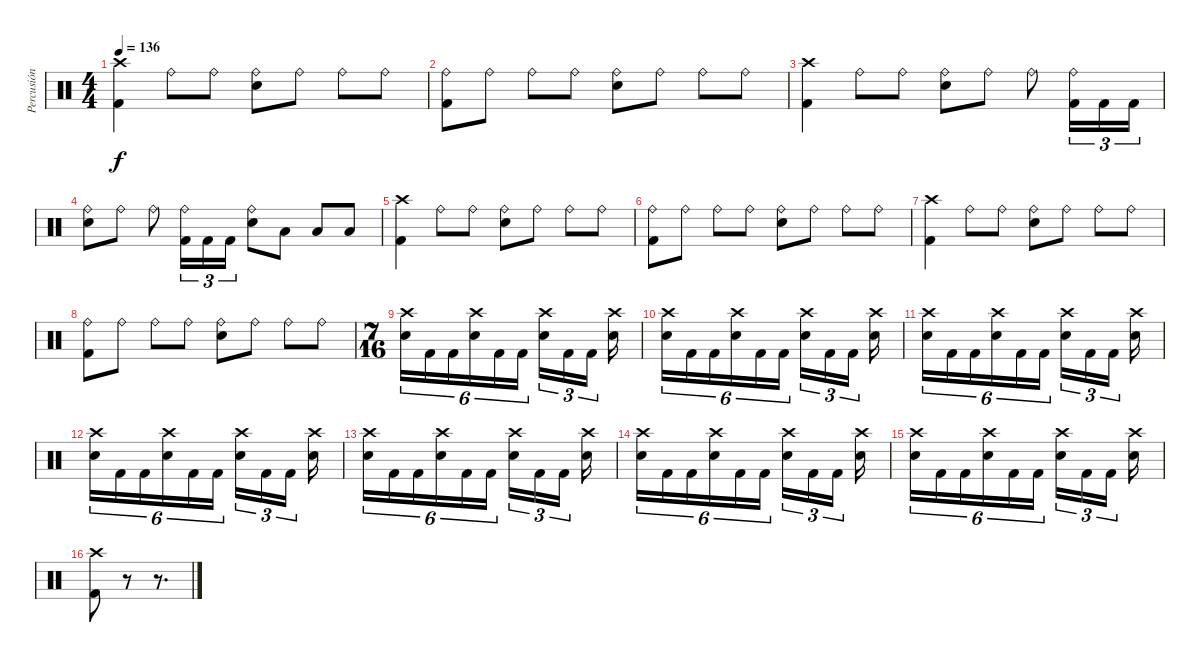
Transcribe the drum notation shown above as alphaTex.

\track ("Percusión" "Percusión") {instrument percussion}
\staff {score}
\articulation defaults
\ts (4 4)
\tempo 136
\clef neutral
\ks c
("Crash high (hit)" "Kick (hit) 2").4{dy f} "Ride (bell)".8 "Ride (bell)".8 ("Ride (bell)" "Electric Snare (hit)").8 "Ride (bell)".8 "Ride (bell)".8 "Ride (bell)".8 |
("Ride (bell)" "Kick (hit) 2").8 "Ride (bell)".8 "Ride (bell)".8 "Ride (bell)".8 ("Ride (bell)" "Electric Snare (hit)").8 "Ride (bell)".8 "Ride (bell)".8 "Ride (bell)".8 |
("Crash high (hit)" "Kick (hit) 2").4 "Ride (bell)".8 "Ride (bell)".8 ("Ride (bell)" "Electric Snare (hit)").8 "Ride (bell)".8 "Ride (bell)".8 ("Ride (bell)" "Kick (hit) 2").16{tu (3 2)} "Kick (hit) 2".16{tu (3 2)} "Kick (hit) 2".16{tu (3 2)} |
("Ride (bell)" "Electric Snare (hit)").8 "Ride (bell)".8 "Ride (bell)".8 ("Ride (bell)" "Kick (hit) 2").16{tu (3 2)} "Kick (hit) 2".16{tu (3 2)} "Kick (hit) 2".16{tu (3 2)} ("Ride (bell)" "Electric Snare (hit)").8 "Low Tom (hit)".8 "Low Tom (hit)".8 "Low Tom (hit)".8 |
("Crash high (hit)" "Kick (hit) 2").4 "Ride (bell)".8 "Ride (bell)".8 ("Ride (bell)" "Electric Snare (hit)").8 "Ride (bell)".8 "Ride (bell)".8 "Ride (bell)".8 |
("Ride (bell)" "Kick (hit) 2").8 "Ride (bell)".8 "Ride (bell)".8 "Ride (bell)".8 ("Ride (bell)" "Electric Snare (hit)").8 "Ride (bell)".8 "Ride (bell)".8 "Ride (bell)".8 |
("Crash high (hit)" "Kick (hit) 2").4 "Ride (bell)".8 "Ride (bell)".8 ("Ride (bell)" "Electric Snare (hit)").8 "Ride (bell)".8 "Ride (bell)".8 "Ride (bell)".8 |
("Ride (bell)" "Kick (hit) 2").8 "Ride (bell)".8 "Ride (bell)".8 "Ride (bell)".8 ("Ride (bell)" "Electric Snare (hit)").8 "Ride (bell)".8 "Ride (bell)".8 "Ride (bell)".8 |
\ts (7 16)
("Crash high (hit)" "Electric Snare (hit)").16{tu (6 4)} "Kick (hit) 2".16{tu (6 4)} "Kick (hit) 2".16{tu (6 4)} ("Crash high (hit)" "Electric Snare (hit)").16{tu (6 4)} "Kick (hit) 2".16{tu (6 4)} "Kick (hit) 2".16{tu (6 4)} ("Crash high (hit)" "Electric Snare (hit)").16{tu (3 2)} "Kick (hit) 2".16{tu (3 2)} "Kick (hit) 2".16{tu (3 2)} ("Crash high (hit)" "Electric Snare (hit)").16 |
("Crash high (hit)" "Electric Snare (hit)").16{tu (6 4)} "Kick (hit) 2".16{tu (6 4)} "Kick (hit) 2".16{tu (6 4)} ("Crash high (hit)" "Electric Snare (hit)").16{tu (6 4)} "Kick (hit) 2".16{tu (6 4)} "Kick (hit) 2".16{tu (6 4)} ("Crash high (hit)" "Electric Snare (hit)").16{tu (3 2)} "Kick (hit) 2".16{tu (3 2)} "Kick (hit) 2".16{tu (3 2)} ("Crash high (hit)" "Electric Snare (hit)").16 |
("Crash high (hit)" "Electric Snare (hit)").16{tu (6 4)} "Kick (hit) 2".16{tu (6 4)} "Kick (hit) 2".16{tu (6 4)} ("Crash high (hit)" "Electric Snare (hit)").16{tu (6 4)} "Kick (hit) 2".16{tu (6 4)} "Kick (hit) 2".16{tu (6 4)} ("Crash high (hit)" "Electric Snare (hit)").16{tu (3 2)} "Kick (hit) 2".16{tu (3 2)} "Kick (hit) 2".16{tu (3 2)} ("Crash high (hit)" "Electric Snare (hit)").16 |
("Crash high (hit)" "Electric Snare (hit)").16{tu (6 4)} "Kick (hit) 2".16{tu (6 4)} "Kick (hit) 2".16{tu (6 4)} ("Crash high (hit)" "Electric Snare (hit)").16{tu (6 4)} "Kick (hit) 2".16{tu (6 4)} "Kick (hit) 2".16{tu (6 4)} ("Crash high (hit)" "Electric Snare (hit)").16{tu (3 2)} "Kick (hit) 2".16{tu (3 2)} "Kick (hit) 2".16{tu (3 2)} ("Crash high (hit)" "Electric Snare (hit)").16 |
("Crash high (hit)" "Electric Snare (hit)").16{tu (6 4)} "Kick (hit) 2".16{tu (6 4)} "Kick (hit) 2".16{tu (6 4)} ("Crash high (hit)" "Electric Snare (hit)").16{tu (6 4)} "Kick (hit) 2".16{tu (6 4)} "Kick (hit) 2".16{tu (6 4)} ("Crash high (hit)" "Electric Snare (hit)").16{tu (3 2)} "Kick (hit) 2".16{tu (3 2)} "Kick (hit) 2".16{tu (3 2)} ("Crash high (hit)" "Electric Snare (hit)").16 |
("Crash high (hit)" "Electric Snare (hit)").16{tu (6 4)} "Kick (hit) 2".16{tu (6 4)} "Kick (hit) 2".16{tu (6 4)} ("Crash high (hit)" "Electric Snare (hit)").16{tu (6 4)} "Kick (hit) 2".16{tu (6 4)} "Kick (hit) 2".16{tu (6 4)} ("Crash high (hit)" "Electric Snare (hit)").16{tu (3 2)} "Kick (hit) 2".16{tu (3 2)} "Kick (hit) 2".16{tu (3 2)} ("Crash high (hit)" "Electric Snare (hit)").16 |
("Crash high (hit)" "Electric Snare (hit)").16{tu (6 4)} "Kick (hit) 2".16{tu (6 4)} "Kick (hit) 2".16{tu (6 4)} ("Crash high (hit)" "Electric Snare (hit)").16{tu (6 4)} "Kick (hit) 2".16{tu (6 4)} "Kick (hit) 2".16{tu (6 4)} ("Crash high (hit)" "Electric Snare (hit)").16{tu (3 2)} "Kick (hit) 2".16{tu (3 2)} "Kick (hit) 2".16{tu (3 2)} ("Crash high (hit)" "Electric Snare (hit)").16 |
("Crash high (hit)" "Kick (hit) 2").8 r.8 r.8{d}
